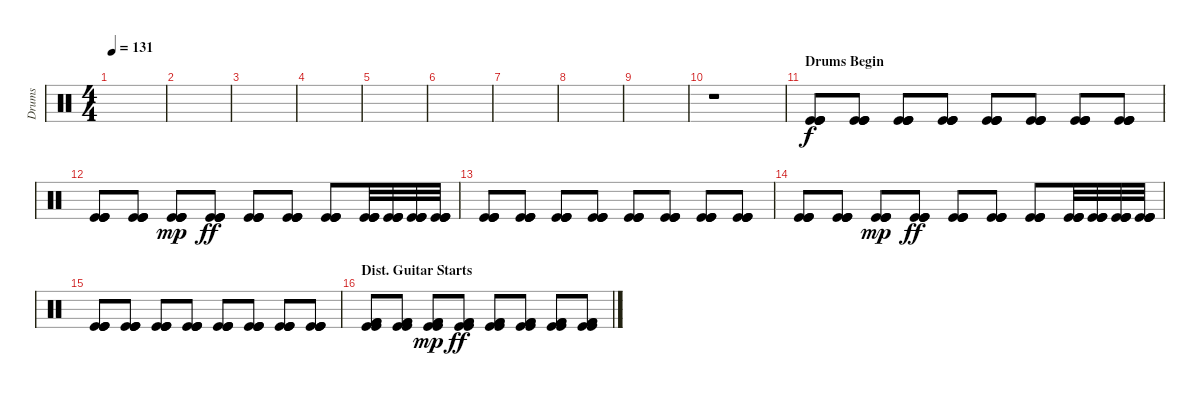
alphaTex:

\track ("Drums" "Drums") {instrument percussion}
\staff {score}
\articulation defaults
\ts (4 4)
\tempo 131
\clef neutral
\ks c
|
|
|
|
|
|
|
|
|
r.1{volume 4} |
\section ("" "Drums Begin")
("Kick (hit)" "Kick (hit)" "Kick (hit)" "Kick (hit)").8{volume 10} ("Kick (hit)" "Kick (hit)" "Kick (hit)" "Kick (hit)").8 ("Kick (hit)" "Kick (hit)" "Kick (hit)" "Kick (hit)").8 ("Kick (hit)" "Kick (hit)" "Kick (hit)" "Kick (hit)").8 ("Kick (hit)" "Kick (hit)" "Kick (hit)" "Kick (hit)").8 ("Kick (hit)" "Kick (hit)" "Kick (hit)" "Kick (hit)").8 ("Kick (hit)" "Kick (hit)" "Kick (hit)" "Kick (hit)").8 ("Kick (hit)" "Kick (hit)" "Kick (hit)" "Kick (hit)").8 |
("Kick (hit)" "Kick (hit)" "Kick (hit)" "Kick (hit)").8 ("Kick (hit)" "Kick (hit)" "Kick (hit)" "Kick (hit)").8 ("Kick (hit)" "Kick (hit)" "Kick (hit)" "Kick (hit)").8{dy mp} ("Kick (hit)" "Kick (hit)" "Kick (hit)" "Kick (hit)").8{dy ff} ("Kick (hit)" "Kick (hit)" "Kick (hit)" "Kick (hit)").8 ("Kick (hit)" "Kick (hit)" "Kick (hit)" "Kick (hit)").8 ("Kick (hit)" "Kick (hit)" "Kick (hit)" "Kick (hit)").8 ("Kick (hit)" "Kick (hit)" "Kick (hit)" "Kick (hit)").32 ("Kick (hit)" "Kick (hit)" "Kick (hit)" "Kick (hit)").32 ("Kick (hit)" "Kick (hit)" "Kick (hit)" "Kick (hit)").32 ("Kick (hit)" "Kick (hit)" "Kick (hit)" "Kick (hit)").32 |
("Kick (hit)" "Kick (hit)" "Kick (hit)" "Kick (hit)").8{volume 16} ("Kick (hit)" "Kick (hit)" "Kick (hit)" "Kick (hit)").8 ("Kick (hit)" "Kick (hit)" "Kick (hit)" "Kick (hit)").8 ("Kick (hit)" "Kick (hit)" "Kick (hit)" "Kick (hit)").8 ("Kick (hit)" "Kick (hit)" "Kick (hit)" "Kick (hit)").8 ("Kick (hit)" "Kick (hit)" "Kick (hit)" "Kick (hit)").8 ("Kick (hit)" "Kick (hit)" "Kick (hit)" "Kick (hit)").8 ("Kick (hit)" "Kick (hit)" "Kick (hit)" "Kick (hit)").8 |
("Kick (hit)" "Kick (hit)" "Kick (hit)" "Kick (hit)").8 ("Kick (hit)" "Kick (hit)" "Kick (hit)" "Kick (hit)").8 ("Kick (hit)" "Kick (hit)" "Kick (hit)" "Kick (hit)").8{dy mp} ("Kick (hit)" "Kick (hit)" "Kick (hit)" "Kick (hit)").8{dy ff} ("Kick (hit)" "Kick (hit)" "Kick (hit)" "Kick (hit)").8 ("Kick (hit)" "Kick (hit)" "Kick (hit)" "Kick (hit)").8 ("Kick (hit)" "Kick (hit)" "Kick (hit)" "Kick (hit)").8 ("Kick (hit)" "Kick (hit)" "Kick (hit)" "Kick (hit)").32 ("Kick (hit)" "Kick (hit)" "Kick (hit)" "Kick (hit)").32 ("Kick (hit)" "Kick (hit)" "Kick (hit)" "Kick (hit)").32 ("Kick (hit)" "Kick (hit)" "Kick (hit)" "Kick (hit)").32 |
("Kick (hit)" "Kick (hit)" "Kick (hit)" "Kick (hit)").8 ("Kick (hit)" "Kick (hit)" "Kick (hit)" "Kick (hit)").8 ("Kick (hit)" "Kick (hit)" "Kick (hit)" "Kick (hit)").8 ("Kick (hit)" "Kick (hit)" "Kick (hit)" "Kick (hit)").8 ("Kick (hit)" "Kick (hit)" "Kick (hit)" "Kick (hit)").8 ("Kick (hit)" "Kick (hit)" "Kick (hit)" "Kick (hit)").8 ("Kick (hit)" "Kick (hit)" "Kick (hit)" "Kick (hit)").8 ("Kick (hit)" "Kick (hit)" "Kick (hit)" "Kick (hit)").8 |
\section ("" "Dist. Guitar Starts")
("Kick (hit) 2" "Kick (hit) 2" "Kick (hit)" "Kick (hit)").8 ("Kick (hit) 2" "Kick (hit) 2" "Kick (hit)" "Kick (hit)").8 ("Kick (hit) 2" "Kick (hit) 2" "Kick (hit)" "Kick (hit)").8{dy mp} ("Kick (hit) 2" "Kick (hit) 2" "Kick (hit)" "Kick (hit)").8{dy ff} ("Kick (hit) 2" "Kick (hit) 2" "Kick (hit)" "Kick (hit)").8 ("Kick (hit) 2" "Kick (hit) 2" "Kick (hit)" "Kick (hit)").8 ("Kick (hit) 2" "Kick (hit) 2" "Kick (hit)" "Kick (hit)").8 ("Kick (hit) 2" "Kick (hit) 2" "Kick (hit)" "Kick (hit)").8
